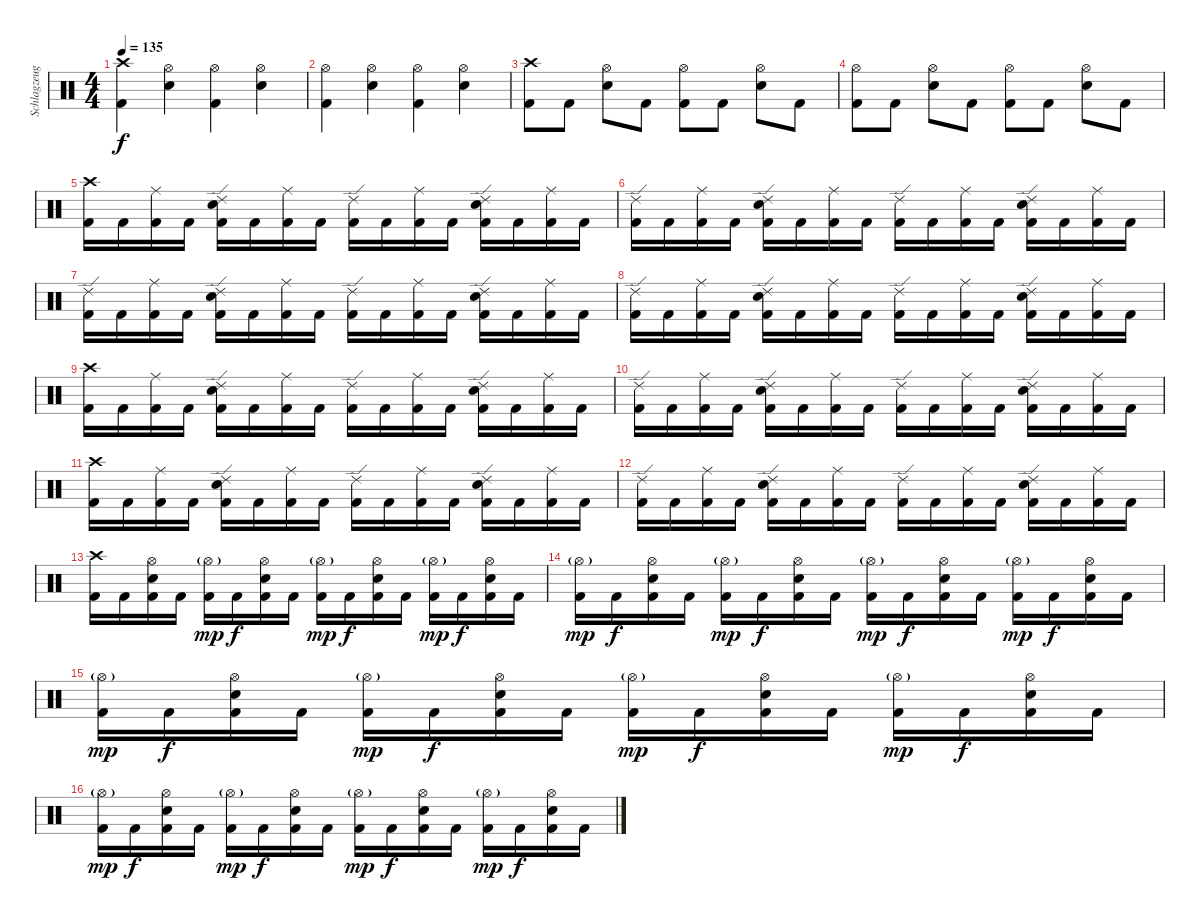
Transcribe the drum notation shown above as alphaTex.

\track ("Schlagzeug" "Schlagzeug") {instrument percussion}
\staff {score}
\articulation defaults
\ts (4 4)
\tempo 135
\clef neutral
\ks c
("Crash high (hit)" "Kick (hit) 2").4{dy f} ("Hi-Hat (open)" "Electric Snare (hit)").4 ("Hi-Hat (open)" "Kick (hit) 2").4 ("Hi-Hat (open)" "Electric Snare (hit)").4 |
("Hi-Hat (open)" "Kick (hit) 2").4 ("Hi-Hat (open)" "Electric Snare (hit)").4 ("Hi-Hat (open)" "Kick (hit) 2").4 ("Hi-Hat (open)" "Electric Snare (hit)").4 |
("Crash high (hit)" "Kick (hit) 2").8 "Kick (hit) 2".8 ("Hi-Hat (open)" "Electric Snare (hit)").8 "Kick (hit) 2".8 ("Hi-Hat (open)" "Kick (hit) 2").8 "Kick (hit) 2".8 ("Hi-Hat (open)" "Electric Snare (hit)").8 "Kick (hit) 2".8 |
("Hi-Hat (open)" "Kick (hit) 2").8 "Kick (hit) 2".8 ("Hi-Hat (open)" "Electric Snare (hit)").8 "Kick (hit) 2".8 ("Hi-Hat (open)" "Kick (hit) 2").8 "Kick (hit) 2".8 ("Hi-Hat (open)" "Electric Snare (hit)").8 "Kick (hit) 2".8 |
("Crash high (hit)" "Kick (hit) 2").16 "Kick (hit) 2".16 ("Ride (middle)" "Kick (hit) 2").16 "Kick (hit) 2".16 ("Ride (edge) 2" "Electric Snare (hit)" "Kick (hit) 2").16 "Kick (hit) 2".16 ("Ride (middle)" "Kick (hit) 2").16 "Kick (hit) 2".16 ("Ride (edge) 2" "Kick (hit) 2").16 "Kick (hit) 2".16 ("Ride (middle)" "Kick (hit) 2").16 "Kick (hit) 2".16 ("Ride (edge) 2" "Electric Snare (hit)" "Kick (hit) 2").16 "Kick (hit) 2".16 ("Ride (middle)" "Kick (hit) 2").16 "Kick (hit) 2".16 |
("Ride (edge) 2" "Kick (hit) 2").16 "Kick (hit) 2".16 ("Ride (middle)" "Kick (hit) 2").16 "Kick (hit) 2".16 ("Ride (edge) 2" "Electric Snare (hit)" "Kick (hit) 2").16 "Kick (hit) 2".16 ("Ride (middle)" "Kick (hit) 2").16 "Kick (hit) 2".16 ("Ride (edge) 2" "Kick (hit) 2").16 "Kick (hit) 2".16 ("Ride (middle)" "Kick (hit) 2").16 "Kick (hit) 2".16 ("Ride (edge) 2" "Electric Snare (hit)" "Kick (hit) 2").16 "Kick (hit) 2".16 ("Ride (middle)" "Kick (hit) 2").16 "Kick (hit) 2".16 |
("Ride (edge) 2" "Kick (hit) 2").16 "Kick (hit) 2".16 ("Ride (middle)" "Kick (hit) 2").16 "Kick (hit) 2".16 ("Ride (edge) 2" "Electric Snare (hit)" "Kick (hit) 2").16 "Kick (hit) 2".16 ("Ride (middle)" "Kick (hit) 2").16 "Kick (hit) 2".16 ("Ride (edge) 2" "Kick (hit) 2").16 "Kick (hit) 2".16 ("Ride (middle)" "Kick (hit) 2").16 "Kick (hit) 2".16 ("Ride (edge) 2" "Electric Snare (hit)" "Kick (hit) 2").16 "Kick (hit) 2".16 ("Ride (middle)" "Kick (hit) 2").16 "Kick (hit) 2".16 |
("Ride (edge) 2" "Kick (hit) 2").16 "Kick (hit) 2".16 ("Ride (middle)" "Kick (hit) 2").16 "Kick (hit) 2".16 ("Ride (edge) 2" "Electric Snare (hit)" "Kick (hit) 2").16 "Kick (hit) 2".16 ("Ride (middle)" "Kick (hit) 2").16 "Kick (hit) 2".16 ("Ride (edge) 2" "Kick (hit) 2").16 "Kick (hit) 2".16 ("Ride (middle)" "Kick (hit) 2").16 "Kick (hit) 2".16 ("Ride (edge) 2" "Electric Snare (hit)" "Kick (hit) 2").16 "Kick (hit) 2".16 ("Ride (middle)" "Kick (hit) 2").16 "Kick (hit) 2".16 |
("Crash high (hit)" "Kick (hit) 2").16 "Kick (hit) 2".16 ("Ride (middle)" "Kick (hit) 2").16 "Kick (hit) 2".16 ("Ride (edge) 2" "Electric Snare (hit)" "Kick (hit) 2").16 "Kick (hit) 2".16 ("Ride (middle)" "Kick (hit) 2").16 "Kick (hit) 2".16 ("Ride (edge) 2" "Kick (hit) 2").16 "Kick (hit) 2".16 ("Ride (middle)" "Kick (hit) 2").16 "Kick (hit) 2".16 ("Ride (edge) 2" "Electric Snare (hit)" "Kick (hit) 2").16 "Kick (hit) 2".16 ("Ride (middle)" "Kick (hit) 2").16 "Kick (hit) 2".16 |
("Ride (edge) 2" "Kick (hit) 2").16 "Kick (hit) 2".16 ("Ride (middle)" "Kick (hit) 2").16 "Kick (hit) 2".16 ("Ride (edge) 2" "Electric Snare (hit)" "Kick (hit) 2").16 "Kick (hit) 2".16 ("Ride (middle)" "Kick (hit) 2").16 "Kick (hit) 2".16 ("Ride (edge) 2" "Kick (hit) 2").16 "Kick (hit) 2".16 ("Ride (middle)" "Kick (hit) 2").16 "Kick (hit) 2".16 ("Ride (edge) 2" "Electric Snare (hit)" "Kick (hit) 2").16 "Kick (hit) 2".16 ("Ride (middle)" "Kick (hit) 2").16 "Kick (hit) 2".16 |
("Crash high (hit)" "Kick (hit) 2").16 "Kick (hit) 2".16 ("Ride (middle)" "Kick (hit) 2").16 "Kick (hit) 2".16 ("Ride (edge) 2" "Electric Snare (hit)" "Kick (hit) 2").16 "Kick (hit) 2".16 ("Ride (middle)" "Kick (hit) 2").16 "Kick (hit) 2".16 ("Ride (edge) 2" "Kick (hit) 2").16 "Kick (hit) 2".16 ("Ride (middle)" "Kick (hit) 2").16 "Kick (hit) 2".16 ("Ride (edge) 2" "Electric Snare (hit)" "Kick (hit) 2").16 "Kick (hit) 2".16 ("Ride (middle)" "Kick (hit) 2").16 "Kick (hit) 2".16 |
("Ride (edge) 2" "Kick (hit) 2").16 "Kick (hit) 2".16 ("Ride (middle)" "Kick (hit) 2").16 "Kick (hit) 2".16 ("Ride (edge) 2" "Electric Snare (hit)" "Kick (hit) 2").16 "Kick (hit) 2".16 ("Ride (middle)" "Kick (hit) 2").16 "Kick (hit) 2".16 ("Ride (edge) 2" "Kick (hit) 2").16 "Kick (hit) 2".16 ("Ride (middle)" "Kick (hit) 2").16 "Kick (hit) 2".16 ("Ride (edge) 2" "Electric Snare (hit)" "Kick (hit) 2").16 "Kick (hit) 2".16 ("Ride (middle)" "Kick (hit) 2").16 "Kick (hit) 2".16 |
("Crash high (hit)" "Kick (hit) 2").16 "Kick (hit) 2".16 ("Hi-Hat (open)" "Electric Snare (hit)" "Kick (hit) 2").16 "Kick (hit) 2".16 ("Hi-Hat (open)"{g} "Kick (hit) 2").16{dy mp} "Kick (hit) 2".16{dy f} ("Hi-Hat (open)" "Electric Snare (hit)" "Kick (hit) 2").16 "Kick (hit) 2".16 ("Hi-Hat (open)"{g} "Kick (hit) 2").16{dy mp} "Kick (hit) 2".16{dy f} ("Hi-Hat (open)" "Electric Snare (hit)" "Kick (hit) 2").16 "Kick (hit) 2".16 ("Hi-Hat (open)"{g} "Kick (hit) 2").16{dy mp} "Kick (hit) 2".16{dy f} ("Hi-Hat (open)" "Electric Snare (hit)" "Kick (hit) 2").16 "Kick (hit) 2".16 |
("Hi-Hat (open)"{g} "Kick (hit) 2").16{dy mp} "Kick (hit) 2".16{dy f} ("Hi-Hat (open)" "Electric Snare (hit)" "Kick (hit) 2").16 "Kick (hit) 2".16 ("Hi-Hat (open)"{g} "Kick (hit) 2").16{dy mp} "Kick (hit) 2".16{dy f} ("Hi-Hat (open)" "Electric Snare (hit)" "Kick (hit) 2").16 "Kick (hit) 2".16 ("Hi-Hat (open)"{g} "Kick (hit) 2").16{dy mp} "Kick (hit) 2".16{dy f} ("Hi-Hat (open)" "Electric Snare (hit)" "Kick (hit) 2").16 "Kick (hit) 2".16 ("Hi-Hat (open)"{g} "Kick (hit) 2").16{dy mp} "Kick (hit) 2".16{dy f} ("Hi-Hat (open)" "Electric Snare (hit)" "Kick (hit) 2").16 "Kick (hit) 2".16 |
("Hi-Hat (open)"{g} "Kick (hit) 2").16{dy mp} "Kick (hit) 2".16{dy f} ("Hi-Hat (open)" "Electric Snare (hit)" "Kick (hit) 2").16 "Kick (hit) 2".16 ("Hi-Hat (open)"{g} "Kick (hit) 2").16{dy mp} "Kick (hit) 2".16{dy f} ("Hi-Hat (open)" "Electric Snare (hit)" "Kick (hit) 2").16 "Kick (hit) 2".16 ("Hi-Hat (open)"{g} "Kick (hit) 2").16{dy mp} "Kick (hit) 2".16{dy f} ("Hi-Hat (open)" "Electric Snare (hit)" "Kick (hit) 2").16 "Kick (hit) 2".16 ("Hi-Hat (open)"{g} "Kick (hit) 2").16{dy mp} "Kick (hit) 2".16{dy f} ("Hi-Hat (open)" "Electric Snare (hit)" "Kick (hit) 2").16 "Kick (hit) 2".16 |
("Hi-Hat (open)"{g} "Kick (hit) 2").16{dy mp} "Kick (hit) 2".16{dy f} ("Hi-Hat (open)" "Electric Snare (hit)" "Kick (hit) 2").16 "Kick (hit) 2".16 ("Hi-Hat (open)"{g} "Kick (hit) 2").16{dy mp} "Kick (hit) 2".16{dy f} ("Hi-Hat (open)" "Electric Snare (hit)" "Kick (hit) 2").16 "Kick (hit) 2".16 ("Hi-Hat (open)"{g} "Kick (hit) 2").16{dy mp} "Kick (hit) 2".16{dy f} ("Hi-Hat (open)" "Electric Snare (hit)" "Kick (hit) 2").16 "Kick (hit) 2".16 ("Hi-Hat (open)"{g} "Kick (hit) 2").16{dy mp} "Kick (hit) 2".16{dy f} ("Hi-Hat (open)" "Electric Snare (hit)" "Kick (hit) 2").16 "Kick (hit) 2".16
